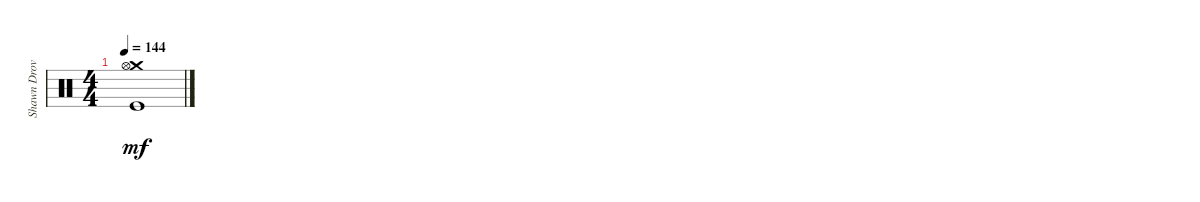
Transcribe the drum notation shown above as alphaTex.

\track ("Shawn Drover" "Shawn Drov") {instrument percussion}
\staff {score}
\articulation defaults
\ts (4 4)
\tempo 144
\clef neutral
\ks c
("Crash medium (hit)" "Hi-Hat (open)" "Kick (hit)").1{dy mf}
